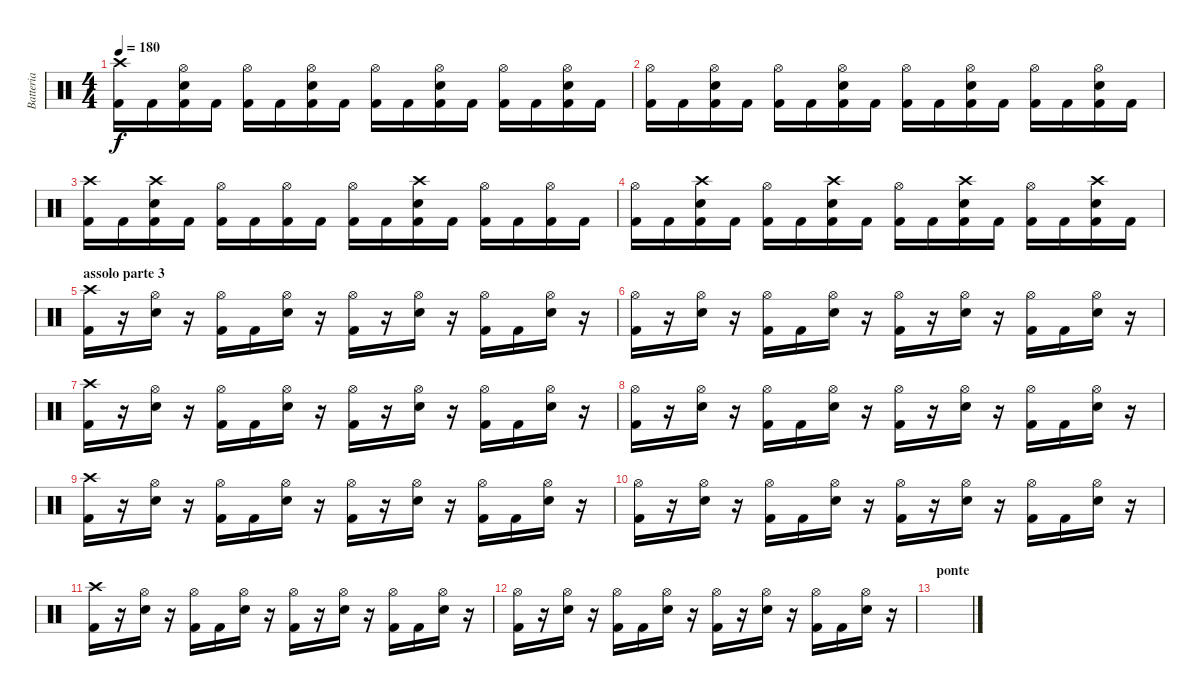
\track ("Batteria" "Batteria") {instrument percussion}
\staff {score}
\articulation defaults
\ts (4 4)
\tempo 180
\clef neutral
\ks c
("Crash high (hit)" "Kick (hit) 2").16{dy f} "Kick (hit) 2".16 ("Hi-Hat (open)" "Snare (hit) 2" "Kick (hit) 2").16 "Kick (hit) 2".16 ("Hi-Hat (open)" "Kick (hit) 2").16 "Kick (hit) 2".16 ("Hi-Hat (open)" "Snare (hit) 2" "Kick (hit) 2").16 "Kick (hit) 2".16 ("Hi-Hat (open)" "Kick (hit) 2").16 "Kick (hit) 2".16 ("Hi-Hat (open)" "Snare (hit) 2" "Kick (hit) 2").16 "Kick (hit) 2".16 ("Hi-Hat (open)" "Kick (hit) 2").16 "Kick (hit) 2".16 ("Hi-Hat (open)" "Snare (hit) 2" "Kick (hit) 2").16 "Kick (hit) 2".16 |
("Hi-Hat (open)" "Kick (hit) 2").16 "Kick (hit) 2".16 ("Hi-Hat (open)" "Snare (hit) 2" "Kick (hit) 2").16 "Kick (hit) 2".16 ("Hi-Hat (open)" "Kick (hit) 2").16 "Kick (hit) 2".16 ("Hi-Hat (open)" "Snare (hit) 2" "Kick (hit) 2").16 "Kick (hit) 2".16 ("Hi-Hat (open)" "Kick (hit) 2").16 "Kick (hit) 2".16 ("Hi-Hat (open)" "Snare (hit) 2" "Kick (hit) 2").16 "Kick (hit) 2".16 ("Hi-Hat (open)" "Kick (hit) 2").16 "Kick (hit) 2".16 ("Hi-Hat (open)" "Snare (hit) 2" "Kick (hit) 2").16 "Kick (hit) 2".16 |
("Crash high (hit)" "Kick (hit) 2").16 "Kick (hit) 2".16 ("Crash high (hit)" "Snare (hit) 2" "Kick (hit) 2").16 "Kick (hit) 2".16 ("Hi-Hat (open)" "Kick (hit) 2").16 "Kick (hit) 2".16 ("Hi-Hat (open)" "Kick (hit) 2").16 "Kick (hit) 2".16 ("Hi-Hat (open)" "Kick (hit) 2").16 "Kick (hit) 2".16 ("Crash high (hit)" "Snare (hit) 2" "Kick (hit) 2").16 "Kick (hit) 2".16 ("Hi-Hat (open)" "Kick (hit) 2").16 "Kick (hit) 2".16 ("Hi-Hat (open)" "Kick (hit) 2").16 "Kick (hit) 2".16 |
("Hi-Hat (open)" "Kick (hit) 2").16 "Kick (hit) 2".16 ("Crash high (hit)" "Snare (hit) 2" "Kick (hit) 2").16 "Kick (hit) 2".16 ("Hi-Hat (open)" "Kick (hit) 2").16 "Kick (hit) 2".16 ("Crash high (hit)" "Snare (hit) 2" "Kick (hit) 2").16 "Kick (hit) 2".16 ("Hi-Hat (open)" "Kick (hit) 2").16 "Kick (hit) 2".16 ("Crash high (hit)" "Snare (hit) 2" "Kick (hit) 2").16 "Kick (hit) 2".16 ("Hi-Hat (open)" "Kick (hit) 2").16 "Kick (hit) 2".16 ("Crash high (hit)" "Snare (hit) 2" "Kick (hit) 2").16 "Kick (hit) 2".16 |
\section ("" "assolo parte 3")
("Crash high (hit)" "Kick (hit) 2").16 r.16 ("Hi-Hat (open)" "Snare (hit) 2").16 r.16 ("Hi-Hat (open)" "Kick (hit) 2").16 "Kick (hit) 2".16 ("Hi-Hat (open)" "Snare (hit) 2").16 r.16 ("Hi-Hat (open)" "Kick (hit) 2").16 r.16 ("Hi-Hat (open)" "Snare (hit) 2").16 r.16 ("Hi-Hat (open)" "Kick (hit) 2").16 "Kick (hit) 2".16 ("Hi-Hat (open)" "Snare (hit) 2").16 r.16 |
("Hi-Hat (open)" "Kick (hit) 2").16 r.16 ("Hi-Hat (open)" "Snare (hit) 2").16 r.16 ("Hi-Hat (open)" "Kick (hit) 2").16 "Kick (hit) 2".16 ("Hi-Hat (open)" "Snare (hit) 2").16 r.16 ("Hi-Hat (open)" "Kick (hit) 2").16 r.16 ("Hi-Hat (open)" "Snare (hit) 2").16 r.16 ("Hi-Hat (open)" "Kick (hit) 2").16 "Kick (hit) 2".16 ("Hi-Hat (open)" "Snare (hit) 2").16 r.16 |
("Crash high (hit)" "Kick (hit) 2").16 r.16 ("Hi-Hat (open)" "Snare (hit) 2").16 r.16 ("Hi-Hat (open)" "Kick (hit) 2").16 "Kick (hit) 2".16 ("Hi-Hat (open)" "Snare (hit) 2").16 r.16 ("Hi-Hat (open)" "Kick (hit) 2").16 r.16 ("Hi-Hat (open)" "Snare (hit) 2").16 r.16 ("Hi-Hat (open)" "Kick (hit) 2").16 "Kick (hit) 2".16 ("Hi-Hat (open)" "Snare (hit) 2").16 r.16 |
("Hi-Hat (open)" "Kick (hit) 2").16 r.16 ("Hi-Hat (open)" "Snare (hit) 2").16 r.16 ("Hi-Hat (open)" "Kick (hit) 2").16 "Kick (hit) 2".16 ("Hi-Hat (open)" "Snare (hit) 2").16 r.16 ("Hi-Hat (open)" "Kick (hit) 2").16 r.16 ("Hi-Hat (open)" "Snare (hit) 2").16 r.16 ("Hi-Hat (open)" "Kick (hit) 2").16 "Kick (hit) 2".16 ("Hi-Hat (open)" "Snare (hit) 2").16 r.16 |
("Crash high (hit)" "Kick (hit) 2").16 r.16 ("Hi-Hat (open)" "Snare (hit) 2").16 r.16 ("Hi-Hat (open)" "Kick (hit) 2").16 "Kick (hit) 2".16 ("Hi-Hat (open)" "Snare (hit) 2").16 r.16 ("Hi-Hat (open)" "Kick (hit) 2").16 r.16 ("Hi-Hat (open)" "Snare (hit) 2").16 r.16 ("Hi-Hat (open)" "Kick (hit) 2").16 "Kick (hit) 2".16 ("Hi-Hat (open)" "Snare (hit) 2").16 r.16 |
("Hi-Hat (open)" "Kick (hit) 2").16 r.16 ("Hi-Hat (open)" "Snare (hit) 2").16 r.16 ("Hi-Hat (open)" "Kick (hit) 2").16 "Kick (hit) 2".16 ("Hi-Hat (open)" "Snare (hit) 2").16 r.16 ("Hi-Hat (open)" "Kick (hit) 2").16 r.16 ("Hi-Hat (open)" "Snare (hit) 2").16 r.16 ("Hi-Hat (open)" "Kick (hit) 2").16 "Kick (hit) 2".16 ("Hi-Hat (open)" "Snare (hit) 2").16 r.16 |
("Crash high (hit)" "Kick (hit) 2").16 r.16 ("Hi-Hat (open)" "Snare (hit) 2").16 r.16 ("Hi-Hat (open)" "Kick (hit) 2").16 "Kick (hit) 2".16 ("Hi-Hat (open)" "Snare (hit) 2").16 r.16 ("Hi-Hat (open)" "Kick (hit) 2").16 r.16 ("Hi-Hat (open)" "Snare (hit) 2").16 r.16 ("Hi-Hat (open)" "Kick (hit) 2").16 "Kick (hit) 2".16 ("Hi-Hat (open)" "Snare (hit) 2").16 r.16 |
("Hi-Hat (open)" "Kick (hit) 2").16 r.16 ("Hi-Hat (open)" "Snare (hit) 2").16 r.16 ("Hi-Hat (open)" "Kick (hit) 2").16 "Kick (hit) 2".16 ("Hi-Hat (open)" "Snare (hit) 2").16 r.16 ("Hi-Hat (open)" "Kick (hit) 2").16 r.16 ("Hi-Hat (open)" "Snare (hit) 2").16 r.16 ("Hi-Hat (open)" "Kick (hit) 2").16 "Kick (hit) 2".16 ("Hi-Hat (open)" "Snare (hit) 2").16 r.16 |
\section ("" "ponte")
